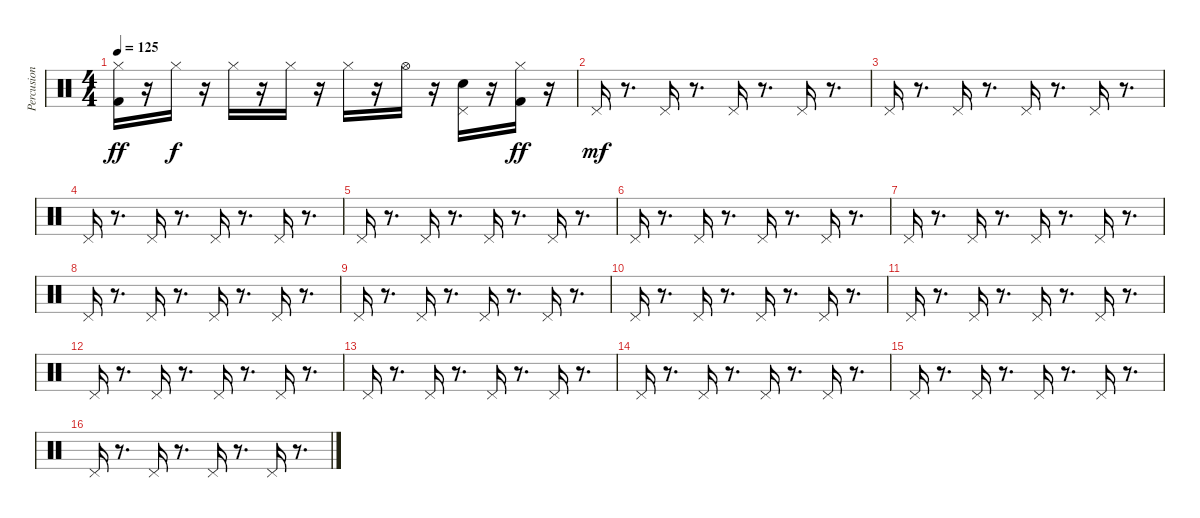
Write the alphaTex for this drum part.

\track ("Percusion" "Percusion") {instrument percussion}
\staff {score}
\articulation defaults
\ts (4 4)
\tempo 125
\clef neutral
\ks c
("Hi-Hat (closed)" "Kick (hit) 2").16{dy ff} r.16 "Hi-Hat (closed)".16{dy f} r.16 "Hi-Hat (closed)".16 r.16 "Hi-Hat (closed)".16 r.16 "Hi-Hat (closed)".16 r.16 "Hi-Hat (open)".16 r.16 ("Pedal Hi-Hat (hit)" "Electric Snare (hit)").16 r.16 ("Kick (hit) 2" "Hi-Hat (closed)").16{dy ff} r.16 |
"Pedal Hi-Hat (hit)".16{dy mf} r.8{d} "Pedal Hi-Hat (hit)".16 r.8{d} "Pedal Hi-Hat (hit)".16 r.8{d} "Pedal Hi-Hat (hit)".16 r.8{d} |
"Pedal Hi-Hat (hit)".16 r.8{d} "Pedal Hi-Hat (hit)".16 r.8{d} "Pedal Hi-Hat (hit)".16 r.8{d} "Pedal Hi-Hat (hit)".16 r.8{d} |
"Pedal Hi-Hat (hit)".16 r.8{d} "Pedal Hi-Hat (hit)".16 r.8{d} "Pedal Hi-Hat (hit)".16 r.8{d} "Pedal Hi-Hat (hit)".16 r.8{d} |
"Pedal Hi-Hat (hit)".16 r.8{d} "Pedal Hi-Hat (hit)".16 r.8{d} "Pedal Hi-Hat (hit)".16 r.8{d} "Pedal Hi-Hat (hit)".16 r.8{d} |
"Pedal Hi-Hat (hit)".16 r.8{d} "Pedal Hi-Hat (hit)".16 r.8{d} "Pedal Hi-Hat (hit)".16 r.8{d} "Pedal Hi-Hat (hit)".16 r.8{d} |
"Pedal Hi-Hat (hit)".16 r.8{d} "Pedal Hi-Hat (hit)".16 r.8{d} "Pedal Hi-Hat (hit)".16 r.8{d} "Pedal Hi-Hat (hit)".16 r.8{d} |
"Pedal Hi-Hat (hit)".16 r.8{d} "Pedal Hi-Hat (hit)".16 r.8{d} "Pedal Hi-Hat (hit)".16 r.8{d} "Pedal Hi-Hat (hit)".16 r.8{d} |
"Pedal Hi-Hat (hit)".16 r.8{d} "Pedal Hi-Hat (hit)".16 r.8{d} "Pedal Hi-Hat (hit)".16 r.8{d} "Pedal Hi-Hat (hit)".16 r.8{d} |
"Pedal Hi-Hat (hit)".16 r.8{d} "Pedal Hi-Hat (hit)".16 r.8{d} "Pedal Hi-Hat (hit)".16 r.8{d} "Pedal Hi-Hat (hit)".16 r.8{d} |
"Pedal Hi-Hat (hit)".16 r.8{d} "Pedal Hi-Hat (hit)".16 r.8{d} "Pedal Hi-Hat (hit)".16 r.8{d} "Pedal Hi-Hat (hit)".16 r.8{d} |
"Pedal Hi-Hat (hit)".16 r.8{d} "Pedal Hi-Hat (hit)".16 r.8{d} "Pedal Hi-Hat (hit)".16 r.8{d} "Pedal Hi-Hat (hit)".16 r.8{d} |
"Pedal Hi-Hat (hit)".16 r.8{d} "Pedal Hi-Hat (hit)".16 r.8{d} "Pedal Hi-Hat (hit)".16 r.8{d} "Pedal Hi-Hat (hit)".16 r.8{d} |
"Pedal Hi-Hat (hit)".16 r.8{d} "Pedal Hi-Hat (hit)".16 r.8{d} "Pedal Hi-Hat (hit)".16 r.8{d} "Pedal Hi-Hat (hit)".16 r.8{d} |
"Pedal Hi-Hat (hit)".16 r.8{d} "Pedal Hi-Hat (hit)".16 r.8{d} "Pedal Hi-Hat (hit)".16 r.8{d} "Pedal Hi-Hat (hit)".16 r.8{d} |
"Pedal Hi-Hat (hit)".16 r.8{d} "Pedal Hi-Hat (hit)".16 r.8{d} "Pedal Hi-Hat (hit)".16 r.8{d} "Pedal Hi-Hat (hit)".16 r.8{d}
